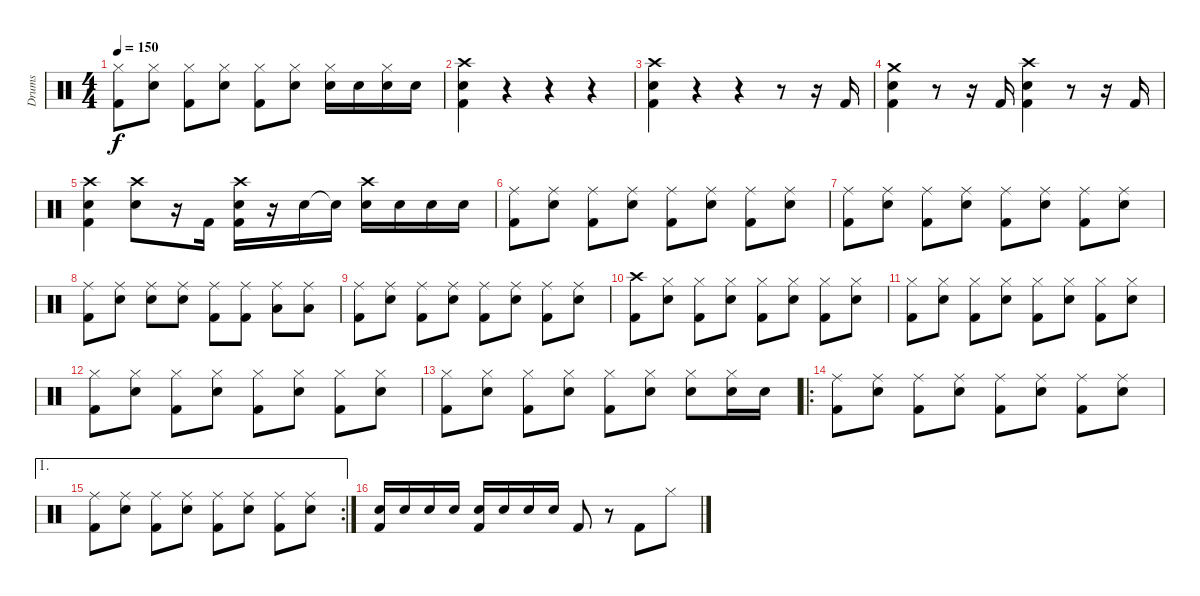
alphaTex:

\track ("Drums" "Drums") {instrument percussion}
\staff {score}
\articulation defaults
\ts (4 4)
\tempo 150
\clef neutral
\ks c
("Hi-Hat (closed)" "Kick (hit) 2").8{dy f} ("Hi-Hat (closed)" "Snare (hit) 2").8 ("Hi-Hat (closed)" "Kick (hit) 2").8 ("Hi-Hat (closed)" "Snare (hit) 2").8 ("Hi-Hat (closed)" "Kick (hit) 2").8 ("Hi-Hat (closed)" "Snare (hit) 2").8 ("Hi-Hat (closed)" "Snare (hit) 2").16 "Snare (hit) 2".16 ("Hi-Hat (closed)" "Snare (hit) 2").16 "Snare (hit) 2".16 |
("Crash high (hit)" "Snare (hit) 2" "Kick (hit) 2").4 r.4 r.4 r.4 |
("Crash high (hit)" "Snare (hit) 2" "Kick (hit) 2").4 r.4 r.4 r.8 r.16 "Kick (hit) 2".16 |
("Crash medium (hit)" "Snare (hit) 2" "Kick (hit) 2").4 r.8 r.16 "Kick (hit) 2".16 ("Crash high (hit)" "Snare (hit) 2" "Kick (hit) 2").4 r.8 r.16 "Kick (hit) 2".16 |
("Crash high (hit)" "Snare (hit) 2" "Kick (hit) 2").4 ("Crash high (hit)" "Snare (hit) 2").8 r.16 "Kick (hit) 2".16 ("Crash high (hit)" "Snare (hit) 2" "Kick (hit) 2").16 r.16 "Snare (hit) 2".16 "Snare (hit) 2"{t}.16 ("Crash high (hit)" "Snare (hit) 2").16 "Snare (hit) 2".16 "Snare (hit) 2".16 "Snare (hit) 2".16 |
("Ride (middle)" "Kick (hit) 2").8 ("Ride (middle)" "Snare (hit) 2").8 ("Ride (middle)" "Kick (hit) 2").8 ("Ride (middle)" "Snare (hit) 2").8 ("Ride (middle)" "Kick (hit) 2").8 ("Ride (middle)" "Snare (hit) 2").8 ("Ride (middle)" "Kick (hit) 2").8 ("Ride (middle)" "Snare (hit) 2").8 |
("Ride (middle)" "Kick (hit) 2").8 ("Ride (middle)" "Snare (hit) 2").8 ("Ride (middle)" "Kick (hit) 2").8 ("Ride (middle)" "Snare (hit) 2").8 ("Ride (middle)" "Kick (hit) 2").8 ("Ride (middle)" "Snare (hit) 2").8 ("Ride (middle)" "Kick (hit) 2").8 ("Ride (middle)" "Snare (hit) 2").8 |
("Ride (middle)" "Kick (hit) 2").8 ("Ride (middle)" "Snare (hit) 2").8 ("Ride (middle)" "Snare (hit) 2").8 ("Ride (middle)" "Snare (hit) 2").8 ("Ride (middle)" "Kick (hit) 2").8 ("Ride (middle)" "Kick (hit) 2").8 ("Ride (middle)" "Low Floor Tom (hit)").8 ("Ride (middle)" "Low Floor Tom (hit)").8 |
("Ride (middle)" "Kick (hit) 2").8 ("Ride (middle)" "Snare (hit) 2").8 ("Ride (middle)" "Kick (hit) 2").8 ("Ride (middle)" "Snare (hit) 2").8 ("Ride (middle)" "Kick (hit) 2").8 ("Ride (middle)" "Snare (hit) 2").8 ("Ride (middle)" "Kick (hit) 2").8 ("Ride (middle)" "Snare (hit) 2").8 |
("Crash high (hit)" "Kick (hit) 2").8 ("Hi-Hat (closed)" "Snare (hit) 2").8 ("Hi-Hat (closed)" "Kick (hit) 2").8 ("Hi-Hat (closed)" "Snare (hit) 2").8 ("Hi-Hat (closed)" "Kick (hit) 2").8 ("Hi-Hat (closed)" "Snare (hit) 2").8 ("Hi-Hat (closed)" "Kick (hit) 2").8 ("Hi-Hat (closed)" "Snare (hit) 2").8 |
("Hi-Hat (closed)" "Kick (hit) 2").8 ("Hi-Hat (closed)" "Snare (hit) 2").8 ("Hi-Hat (closed)" "Kick (hit) 2").8 ("Hi-Hat (closed)" "Snare (hit) 2").8 ("Hi-Hat (closed)" "Kick (hit) 2").8 ("Hi-Hat (closed)" "Snare (hit) 2").8 ("Hi-Hat (closed)" "Kick (hit) 2").8 ("Hi-Hat (closed)" "Snare (hit) 2").8 |
("Hi-Hat (closed)" "Kick (hit) 2").8 ("Hi-Hat (closed)" "Snare (hit) 2").8 ("Hi-Hat (closed)" "Kick (hit) 2").8 ("Hi-Hat (closed)" "Snare (hit) 2").8 ("Hi-Hat (closed)" "Kick (hit) 2").8 ("Hi-Hat (closed)" "Snare (hit) 2").8 ("Hi-Hat (closed)" "Kick (hit) 2").8 ("Hi-Hat (closed)" "Snare (hit) 2").8 |
("Hi-Hat (closed)" "Kick (hit) 2").8 ("Hi-Hat (closed)" "Snare (hit) 2").8 ("Hi-Hat (closed)" "Kick (hit) 2").8 ("Hi-Hat (closed)" "Snare (hit) 2").8 ("Hi-Hat (closed)" "Kick (hit) 2").8 ("Hi-Hat (closed)" "Snare (hit) 2").8 ("Hi-Hat (closed)" "Snare (hit) 2").8 ("Hi-Hat (closed)" "Snare (hit) 2").16 "Snare (hit) 2".16 |
\ro
("Ride (middle)" "Kick (hit) 2").8 ("Ride (middle)" "Snare (hit) 2").8 ("Ride (middle)" "Kick (hit) 2").8 ("Ride (middle)" "Snare (hit) 2").8 ("Ride (middle)" "Kick (hit) 2").8 ("Ride (middle)" "Snare (hit) 2").8 ("Ride (middle)" "Kick (hit) 2").8 ("Ride (middle)" "Snare (hit) 2").8 |
\ae 1
\rc 2
("Ride (middle)" "Kick (hit) 2").8 ("Ride (middle)" "Snare (hit) 2").8 ("Ride (middle)" "Kick (hit) 2").8 ("Ride (middle)" "Snare (hit) 2").8 ("Ride (middle)" "Kick (hit) 2").8 ("Ride (middle)" "Snare (hit) 2").8 ("Ride (middle)" "Kick (hit) 2").8 ("Ride (middle)" "Snare (hit) 2").8 |
("Snare (hit) 2" "Kick (hit) 2").16 "Snare (hit) 2".16 "Snare (hit) 2".16 "Snare (hit) 2".16 ("Snare (hit) 2" "Kick (hit) 2").16 "Snare (hit) 2".16 "Snare (hit) 2".16 "Snare (hit) 2".16 "Kick (hit) 2".8 r.8 "Kick (hit) 2".8 "Hi-Hat (closed)".8
